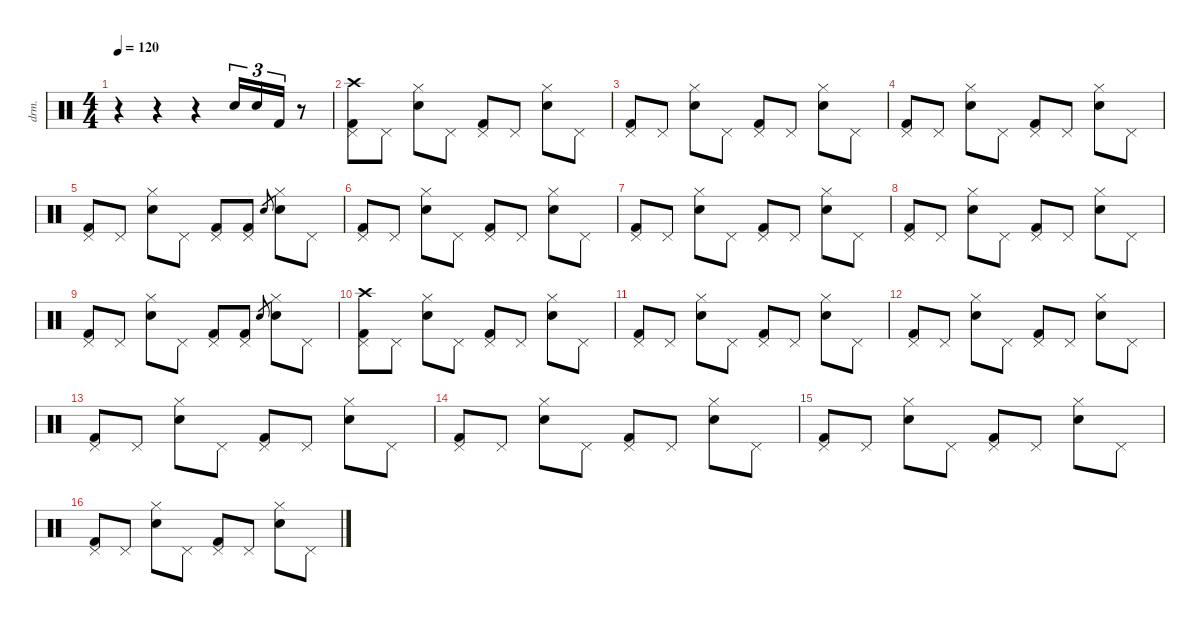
\defaultSystemsLayout 4
\hideDynamics
\bracketExtendMode nobrackets
\otherSystemsTrackNameOrientation horizontal
\track ("Jeff Campitelli" "drm.") {instrument percussion}
\staff {score}
\articulation defaults
\ts (4 4)
\tempo 120
\clef neutral
\ks c
r.4{dy f beam Down} r.4{beam Down} r.4{beam Down} "Snare (hit) 2".16{tu (3 2) beam Up} "Snare (hit) 2".16{tu (3 2) beam Up} "Kick (hit) 2".16{tu (3 2) beam Up} r.8{beam Up} |
("Crash high (hit)" "Pedal Hi-Hat (hit)" "Kick (hit) 2").8{beam Down} "Pedal Hi-Hat (hit)".8{beam Down} ("Hi-Hat (closed)" "Snare (hit) 2").8{beam Down} "Pedal Hi-Hat (hit)".8{beam Down} ("Pedal Hi-Hat (hit)" "Kick (hit) 2").8{beam Up} "Pedal Hi-Hat (hit)".8{beam Up} ("Hi-Hat (closed)" "Snare (hit) 2").8{beam Down} "Pedal Hi-Hat (hit)".8{beam Down} |
("Pedal Hi-Hat (hit)" "Kick (hit) 2").8{beam Up} "Pedal Hi-Hat (hit)".8{beam Up} ("Hi-Hat (closed)" "Snare (hit) 2").8{beam Down} "Pedal Hi-Hat (hit)".8{beam Down} ("Pedal Hi-Hat (hit)" "Kick (hit) 2").8{beam Up} "Pedal Hi-Hat (hit)".8{beam Up} ("Hi-Hat (closed)" "Snare (hit) 2").8{beam Down} "Pedal Hi-Hat (hit)".8{beam Down} |
("Pedal Hi-Hat (hit)" "Kick (hit) 2").8{beam Up} "Pedal Hi-Hat (hit)".8{beam Up} ("Hi-Hat (closed)" "Snare (hit) 2").8{beam Down} "Pedal Hi-Hat (hit)".8{beam Down} ("Pedal Hi-Hat (hit)" "Kick (hit) 2").8{beam Up} "Pedal Hi-Hat (hit)".8{beam Up} ("Hi-Hat (closed)" "Snare (hit) 2").8{beam Down} "Pedal Hi-Hat (hit)".8{beam Down} |
("Pedal Hi-Hat (hit)" "Kick (hit) 2").8{beam Up} "Pedal Hi-Hat (hit)".8{beam Up} ("Hi-Hat (closed)" "Snare (hit) 2").8{beam Down} "Pedal Hi-Hat (hit)".8{beam Down} ("Pedal Hi-Hat (hit)" "Kick (hit) 2").8{beam Up} ("Pedal Hi-Hat (hit)" "Kick (hit) 2").8{beam Up} "Snare (hit) 2".8{gr dy mf beam Up} ("Hi-Hat (closed)" "Snare (hit) 2").8{dy f beam Down} "Pedal Hi-Hat (hit)".8{beam Down} |
("Pedal Hi-Hat (hit)" "Kick (hit) 2").8{beam Up} "Pedal Hi-Hat (hit)".8{beam Up} ("Hi-Hat (closed)" "Snare (hit) 2").8{beam Down} "Pedal Hi-Hat (hit)".8{beam Down} ("Pedal Hi-Hat (hit)" "Kick (hit) 2").8{beam Up} "Pedal Hi-Hat (hit)".8{beam Up} ("Hi-Hat (closed)" "Snare (hit) 2").8{beam Down} "Pedal Hi-Hat (hit)".8{beam Down} |
("Pedal Hi-Hat (hit)" "Kick (hit) 2").8{beam Up} "Pedal Hi-Hat (hit)".8{beam Up} ("Hi-Hat (closed)" "Snare (hit) 2").8{beam Down} "Pedal Hi-Hat (hit)".8{beam Down} ("Pedal Hi-Hat (hit)" "Kick (hit) 2").8{beam Up} "Pedal Hi-Hat (hit)".8{beam Up} ("Hi-Hat (closed)" "Snare (hit) 2").8{beam Down} "Pedal Hi-Hat (hit)".8{beam Down} |
("Pedal Hi-Hat (hit)" "Kick (hit) 2").8{beam Up} "Pedal Hi-Hat (hit)".8{beam Up} ("Hi-Hat (closed)" "Snare (hit) 2").8{beam Down} "Pedal Hi-Hat (hit)".8{beam Down} ("Pedal Hi-Hat (hit)" "Kick (hit) 2").8{beam Up} "Pedal Hi-Hat (hit)".8{beam Up} ("Hi-Hat (closed)" "Snare (hit) 2").8{beam Down} "Pedal Hi-Hat (hit)".8{beam Down} |
("Pedal Hi-Hat (hit)" "Kick (hit) 2").8{beam Up} "Pedal Hi-Hat (hit)".8{beam Up} ("Hi-Hat (closed)" "Snare (hit) 2").8{beam Down} "Pedal Hi-Hat (hit)".8{beam Down} ("Pedal Hi-Hat (hit)" "Kick (hit) 2").8{beam Up} ("Pedal Hi-Hat (hit)" "Kick (hit) 2").8{beam Up} "Snare (hit) 2".8{gr dy mf beam Up} ("Hi-Hat (closed)" "Snare (hit) 2").8{dy f beam Down} "Pedal Hi-Hat (hit)".8{beam Down} |
("Crash high (hit)" "Pedal Hi-Hat (hit)" "Kick (hit) 2").8{beam Down} "Pedal Hi-Hat (hit)".8{beam Down} ("Hi-Hat (closed)" "Snare (hit) 2").8{beam Down} "Pedal Hi-Hat (hit)".8{beam Down} ("Pedal Hi-Hat (hit)" "Kick (hit) 2").8{beam Up} "Pedal Hi-Hat (hit)".8{beam Up} ("Hi-Hat (closed)" "Snare (hit) 2").8{beam Down} "Pedal Hi-Hat (hit)".8{beam Down} |
("Pedal Hi-Hat (hit)" "Kick (hit) 2").8{beam Up} "Pedal Hi-Hat (hit)".8{beam Up} ("Hi-Hat (closed)" "Snare (hit) 2").8{beam Down} "Pedal Hi-Hat (hit)".8{beam Down} ("Pedal Hi-Hat (hit)" "Kick (hit) 2").8{beam Up} "Pedal Hi-Hat (hit)".8{beam Up} ("Hi-Hat (closed)" "Snare (hit) 2").8{beam Down} "Pedal Hi-Hat (hit)".8{beam Down} |
("Pedal Hi-Hat (hit)" "Kick (hit) 2").8{beam Up} "Pedal Hi-Hat (hit)".8{beam Up} ("Hi-Hat (closed)" "Snare (hit) 2").8{beam Down} "Pedal Hi-Hat (hit)".8{beam Down} ("Pedal Hi-Hat (hit)" "Kick (hit) 2").8{beam Up} "Pedal Hi-Hat (hit)".8{beam Up} ("Hi-Hat (closed)" "Snare (hit) 2").8{beam Down} "Pedal Hi-Hat (hit)".8{beam Down} |
("Pedal Hi-Hat (hit)" "Kick (hit) 2").8{beam Up} "Pedal Hi-Hat (hit)".8{beam Up} ("Hi-Hat (closed)" "Snare (hit) 2").8{beam Down} "Pedal Hi-Hat (hit)".8{beam Down} ("Pedal Hi-Hat (hit)" "Kick (hit) 2").8{beam Up} "Pedal Hi-Hat (hit)".8{beam Up} ("Hi-Hat (closed)" "Snare (hit) 2").8{beam Down} "Pedal Hi-Hat (hit)".8{beam Down} |
("Pedal Hi-Hat (hit)" "Kick (hit) 2").8{beam Up} "Pedal Hi-Hat (hit)".8{beam Up} ("Hi-Hat (closed)" "Snare (hit) 2").8{beam Down} "Pedal Hi-Hat (hit)".8{beam Down} ("Pedal Hi-Hat (hit)" "Kick (hit) 2").8{beam Up} "Pedal Hi-Hat (hit)".8{beam Up} ("Hi-Hat (closed)" "Snare (hit) 2").8{beam Down} "Pedal Hi-Hat (hit)".8{beam Down} |
("Pedal Hi-Hat (hit)" "Kick (hit) 2").8{beam Up} "Pedal Hi-Hat (hit)".8{beam Up} ("Hi-Hat (closed)" "Snare (hit) 2").8{beam Down} "Pedal Hi-Hat (hit)".8{beam Down} ("Pedal Hi-Hat (hit)" "Kick (hit) 2").8{beam Up} "Pedal Hi-Hat (hit)".8{beam Up} ("Hi-Hat (closed)" "Snare (hit) 2").8{beam Down} "Pedal Hi-Hat (hit)".8{beam Down} |
("Pedal Hi-Hat (hit)" "Kick (hit) 2").8{beam Up} "Pedal Hi-Hat (hit)".8{beam Up} ("Hi-Hat (closed)" "Snare (hit) 2").8{beam Down} "Pedal Hi-Hat (hit)".8{beam Down} ("Pedal Hi-Hat (hit)" "Kick (hit) 2").8{beam Up} "Pedal Hi-Hat (hit)".8{beam Up} ("Hi-Hat (closed)" "Snare (hit) 2").8{beam Down} "Pedal Hi-Hat (hit)".8{beam Down}
